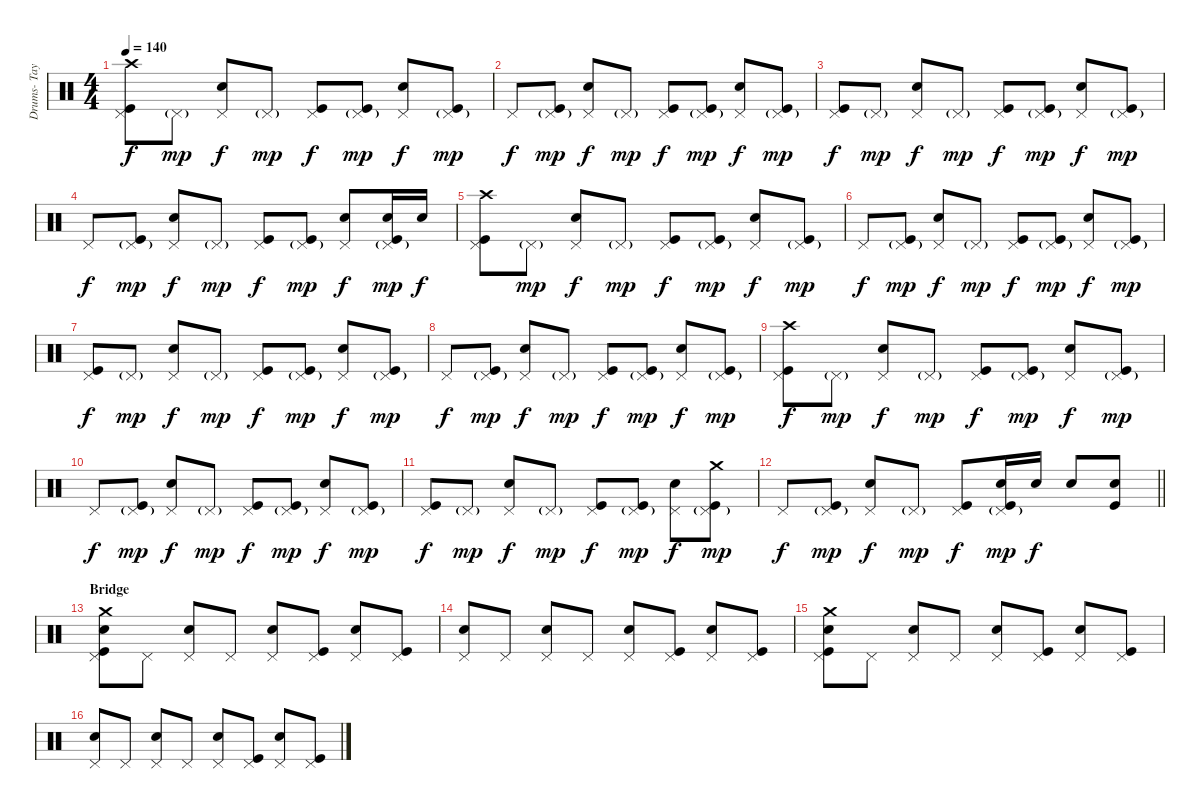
\track ("Drums- Taylor Hawkins" "Drums- Tay") {instrument percussion}
\staff {score}
\articulation defaults
\ts (4 4)
\tempo 140
\clef neutral
\ks c
("Crash high (hit)" "Pedal Hi-Hat (hit)" "Kick (hit)").8{dy f} "Pedal Hi-Hat (hit)"{g}.8{dy mp} ("Pedal Hi-Hat (hit)" "Snare (hit) 2").8{dy f} "Pedal Hi-Hat (hit)"{g}.8{dy mp} ("Pedal Hi-Hat (hit)" "Kick (hit)").8{dy f} ("Pedal Hi-Hat (hit)"{g} "Kick (hit)").8{dy mp} ("Pedal Hi-Hat (hit)" "Snare (hit) 2").8{dy f} ("Pedal Hi-Hat (hit)"{g} "Kick (hit)").8{dy mp} |
"Pedal Hi-Hat (hit)".8{dy f} ("Pedal Hi-Hat (hit)"{g} "Kick (hit)").8{dy mp} ("Pedal Hi-Hat (hit)" "Snare (hit) 2").8{dy f} "Pedal Hi-Hat (hit)"{g}.8{dy mp} ("Pedal Hi-Hat (hit)" "Kick (hit)").8{dy f} ("Pedal Hi-Hat (hit)"{g} "Kick (hit)").8{dy mp} ("Pedal Hi-Hat (hit)" "Snare (hit) 2").8{dy f} ("Pedal Hi-Hat (hit)"{g} "Kick (hit)").8{dy mp} |
("Pedal Hi-Hat (hit)" "Kick (hit)").8{dy f} "Pedal Hi-Hat (hit)"{g}.8{dy mp} ("Pedal Hi-Hat (hit)" "Snare (hit) 2").8{dy f} "Pedal Hi-Hat (hit)"{g}.8{dy mp} ("Pedal Hi-Hat (hit)" "Kick (hit)").8{dy f} ("Pedal Hi-Hat (hit)"{g} "Kick (hit)").8{dy mp} ("Pedal Hi-Hat (hit)" "Snare (hit) 2").8{dy f} ("Pedal Hi-Hat (hit)"{g} "Kick (hit)").8{dy mp} |
"Pedal Hi-Hat (hit)".8{dy f} ("Pedal Hi-Hat (hit)"{g} "Kick (hit)").8{dy mp} ("Pedal Hi-Hat (hit)" "Snare (hit) 2").8{dy f} "Pedal Hi-Hat (hit)"{g}.8{dy mp} ("Pedal Hi-Hat (hit)" "Kick (hit)").8{dy f} ("Pedal Hi-Hat (hit)"{g} "Kick (hit)").8{dy mp} ("Pedal Hi-Hat (hit)" "Snare (hit) 2").8{dy f} ("Electric Snare (hit)" "Pedal Hi-Hat (hit)"{g} "Kick (hit)").16{dy mp} "Electric Snare (hit)".16{dy f} |
("Crash high (hit)" "Pedal Hi-Hat (hit)" "Kick (hit)").8 "Pedal Hi-Hat (hit)"{g}.8{dy mp} ("Pedal Hi-Hat (hit)" "Snare (hit) 2").8{dy f} "Pedal Hi-Hat (hit)"{g}.8{dy mp} ("Pedal Hi-Hat (hit)" "Kick (hit)").8{dy f} ("Pedal Hi-Hat (hit)"{g} "Kick (hit)").8{dy mp} ("Pedal Hi-Hat (hit)" "Snare (hit) 2").8{dy f} ("Pedal Hi-Hat (hit)"{g} "Kick (hit)").8{dy mp} |
"Pedal Hi-Hat (hit)".8{dy f} ("Pedal Hi-Hat (hit)"{g} "Kick (hit)").8{dy mp} ("Pedal Hi-Hat (hit)" "Snare (hit) 2").8{dy f} "Pedal Hi-Hat (hit)"{g}.8{dy mp} ("Pedal Hi-Hat (hit)" "Kick (hit)").8{dy f} ("Pedal Hi-Hat (hit)"{g} "Kick (hit)").8{dy mp} ("Pedal Hi-Hat (hit)" "Snare (hit) 2").8{dy f} ("Pedal Hi-Hat (hit)"{g} "Kick (hit)").8{dy mp} |
("Pedal Hi-Hat (hit)" "Kick (hit)").8{dy f} "Pedal Hi-Hat (hit)"{g}.8{dy mp} ("Pedal Hi-Hat (hit)" "Snare (hit) 2").8{dy f} "Pedal Hi-Hat (hit)"{g}.8{dy mp} ("Pedal Hi-Hat (hit)" "Kick (hit)").8{dy f} ("Pedal Hi-Hat (hit)"{g} "Kick (hit)").8{dy mp} ("Pedal Hi-Hat (hit)" "Snare (hit) 2").8{dy f} ("Pedal Hi-Hat (hit)"{g} "Kick (hit)").8{dy mp} |
"Pedal Hi-Hat (hit)".8{dy f} ("Pedal Hi-Hat (hit)"{g} "Kick (hit)").8{dy mp} ("Pedal Hi-Hat (hit)" "Snare (hit) 2").8{dy f} "Pedal Hi-Hat (hit)"{g}.8{dy mp} ("Pedal Hi-Hat (hit)" "Kick (hit)").8{dy f} ("Pedal Hi-Hat (hit)"{g} "Kick (hit)").8{dy mp} ("Pedal Hi-Hat (hit)" "Snare (hit) 2").8{dy f} ("Pedal Hi-Hat (hit)"{g} "Kick (hit)").8{dy mp} |
("Crash high (hit)" "Pedal Hi-Hat (hit)" "Kick (hit)").8{dy f} "Pedal Hi-Hat (hit)"{g}.8{dy mp} ("Pedal Hi-Hat (hit)" "Snare (hit) 2").8{dy f} "Pedal Hi-Hat (hit)"{g}.8{dy mp} ("Pedal Hi-Hat (hit)" "Kick (hit)").8{dy f} ("Pedal Hi-Hat (hit)"{g} "Kick (hit)").8{dy mp} ("Pedal Hi-Hat (hit)" "Snare (hit) 2").8{dy f} ("Pedal Hi-Hat (hit)"{g} "Kick (hit)").8{dy mp} |
"Pedal Hi-Hat (hit)".8{dy f} ("Pedal Hi-Hat (hit)"{g} "Kick (hit)").8{dy mp} ("Pedal Hi-Hat (hit)" "Snare (hit) 2").8{dy f} "Pedal Hi-Hat (hit)"{g}.8{dy mp} ("Pedal Hi-Hat (hit)" "Kick (hit)").8{dy f} ("Pedal Hi-Hat (hit)"{g} "Kick (hit)").8{dy mp} ("Pedal Hi-Hat (hit)" "Snare (hit) 2").8{dy f} ("Pedal Hi-Hat (hit)"{g} "Kick (hit)").8{dy mp} |
("Pedal Hi-Hat (hit)" "Kick (hit)").8{dy f} "Pedal Hi-Hat (hit)"{g}.8{dy mp} ("Pedal Hi-Hat (hit)" "Snare (hit) 2").8{dy f} "Pedal Hi-Hat (hit)"{g}.8{dy mp} ("Pedal Hi-Hat (hit)" "Kick (hit)").8{dy f} ("Pedal Hi-Hat (hit)"{g} "Kick (hit)").8{dy mp} ("Pedal Hi-Hat (hit)" "Snare (hit) 2").8{dy f} ("Crash medium (hit)" "Pedal Hi-Hat (hit)"{g} "Kick (hit)").8{dy mp} |
\barLineRight lightlight "Pedal Hi-Hat (hit)".8{dy f}
("Pedal Hi-Hat (hit)"{g} "Kick (hit)").8{dy mp} ("Pedal Hi-Hat (hit)" "Snare (hit) 2").8{dy f} "Pedal Hi-Hat (hit)"{g}.8{dy mp} ("Pedal Hi-Hat (hit)" "Kick (hit)").8{dy f} ("Electric Snare (hit)" "Pedal Hi-Hat (hit)"{g} "Kick (hit)").16{dy mp} "Snare (hit) 2".16{dy f} "Snare (hit) 2".8 ("Snare (hit) 2" "Kick (hit)").8 |
\section ("" "Bridge")
("Kick (hit)" "Crash medium (hit)" "Snare (hit) 2" "Pedal Hi-Hat (hit)").8 "Pedal Hi-Hat (hit)".8 ("Snare (hit) 2" "Pedal Hi-Hat (hit)").8 "Pedal Hi-Hat (hit)".8 ("Snare (hit) 2" "Pedal Hi-Hat (hit)").8 ("Pedal Hi-Hat (hit)" "Kick (hit)").8 ("Snare (hit) 2" "Pedal Hi-Hat (hit)").8 ("Pedal Hi-Hat (hit)" "Kick (hit)").8 |
("Snare (hit) 2" "Pedal Hi-Hat (hit)").8 "Pedal Hi-Hat (hit)".8 ("Snare (hit) 2" "Pedal Hi-Hat (hit)").8 "Pedal Hi-Hat (hit)".8 ("Snare (hit) 2" "Pedal Hi-Hat (hit)").8 ("Pedal Hi-Hat (hit)" "Kick (hit)").8 ("Snare (hit) 2" "Pedal Hi-Hat (hit)").8 ("Pedal Hi-Hat (hit)" "Kick (hit)").8 |
("Kick (hit)" "Crash medium (hit)" "Snare (hit) 2" "Pedal Hi-Hat (hit)").8 "Pedal Hi-Hat (hit)".8 ("Snare (hit) 2" "Pedal Hi-Hat (hit)").8 "Pedal Hi-Hat (hit)".8 ("Snare (hit) 2" "Pedal Hi-Hat (hit)").8 ("Pedal Hi-Hat (hit)" "Kick (hit)").8 ("Snare (hit) 2" "Pedal Hi-Hat (hit)").8 ("Pedal Hi-Hat (hit)" "Kick (hit)").8 |
("Snare (hit) 2" "Pedal Hi-Hat (hit)").8 "Pedal Hi-Hat (hit)".8 ("Snare (hit) 2" "Pedal Hi-Hat (hit)").8 "Pedal Hi-Hat (hit)".8 ("Snare (hit) 2" "Pedal Hi-Hat (hit)").8 ("Pedal Hi-Hat (hit)" "Kick (hit)").8 ("Snare (hit) 2" "Pedal Hi-Hat (hit)").8 ("Pedal Hi-Hat (hit)" "Kick (hit)").8
